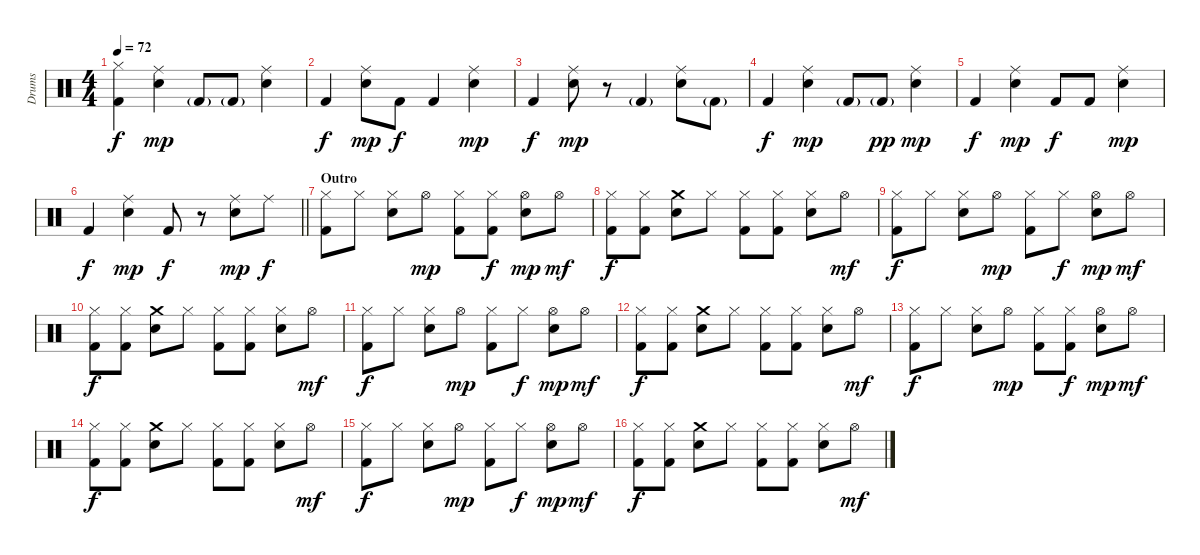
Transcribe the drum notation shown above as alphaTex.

\track ("Drums" "Drums") {instrument percussion}
\staff {score}
\articulation defaults
\ts (4 4)
\tempo 72
\clef neutral
\ks c
("Hi-Hat (closed)" "Kick (hit) 2").4{dy f} ("Ride (middle)" "Electric Snare (hit)").4{dy mp} "Kick (hit) 2"{g}.8 "Kick (hit) 2"{g}.8 ("Ride (middle)" "Electric Snare (hit)").4 |
"Kick (hit) 2".4{dy f} ("Ride (middle)" "Electric Snare (hit)").8{dy mp} "Kick (hit) 2".8{dy f} "Kick (hit) 2".4 ("Ride (middle)" "Electric Snare (hit)").4{dy mp} |
"Kick (hit) 2".4{dy f} ("Ride (middle)" "Electric Snare (hit)").8{dy mp} r.8 "Kick (hit) 2"{g}.4 ("Ride (middle)" "Electric Snare (hit)").8 "Kick (hit) 2"{g}.8 |
"Kick (hit) 2".4{dy f} ("Ride (middle)" "Electric Snare (hit)").4{dy mp} "Kick (hit) 2"{g}.8 "Kick (hit) 2"{g}.8{dy pp} ("Ride (middle)" "Electric Snare (hit)").4{dy mp} |
"Kick (hit) 2".4{dy f} ("Ride (middle)" "Electric Snare (hit)").4{dy mp} "Kick (hit) 2".8{dy f} "Kick (hit) 2".8 ("Ride (middle)" "Electric Snare (hit)").4{dy mp} |
\barLineRight lightlight "Kick (hit) 2".4{dy f}
("Ride (middle)" "Electric Snare (hit)").4{dy mp} "Kick (hit) 2".8{dy f} r.8 ("Ride (middle)" "Electric Snare (hit)").8{dy mp} "Ride (middle)".8{dy f} |
\section ("" "Outro")
("Hi-Hat (closed)" "Kick (hit) 2").8 "Hi-Hat (closed)".8 ("Hi-Hat (closed)" "Electric Snare (hit)").8 "Hi-Hat (open)".8{dy mp} ("Hi-Hat (closed)" "Kick (hit) 2").8 ("Hi-Hat (closed)" "Kick (hit) 2").8{dy f} ("Hi-Hat (open)" "Electric Snare (hit)").8{dy mp} "Hi-Hat (open)".8{dy mf} |
("Hi-Hat (closed)" "Kick (hit) 2").8{dy f} ("Hi-Hat (closed)" "Kick (hit) 2").8 ("Crash medium (hit)" "Electric Snare (hit)").8 "Hi-Hat (closed)".8 ("Hi-Hat (closed)" "Kick (hit) 2").8 ("Hi-Hat (closed)" "Kick (hit) 2").8 ("Hi-Hat (closed)" "Electric Snare (hit)").8 "Hi-Hat (open)".8{dy mf} |
("Hi-Hat (closed)" "Kick (hit) 2").8{dy f} "Hi-Hat (closed)".8 ("Hi-Hat (closed)" "Electric Snare (hit)").8 "Hi-Hat (open)".8{dy mp} ("Hi-Hat (closed)" "Kick (hit) 2").8 "Hi-Hat (closed)".8{dy f} ("Hi-Hat (open)" "Electric Snare (hit)").8{dy mp} "Hi-Hat (open)".8{dy mf} |
("Hi-Hat (closed)" "Kick (hit) 2").8{dy f} ("Hi-Hat (closed)" "Kick (hit) 2").8 ("Crash medium (hit)" "Electric Snare (hit)").8 "Hi-Hat (closed)".8 ("Hi-Hat (closed)" "Kick (hit) 2").8 ("Hi-Hat (closed)" "Kick (hit) 2").8 ("Hi-Hat (closed)" "Electric Snare (hit)").8 "Hi-Hat (open)".8{dy mf} |
("Hi-Hat (closed)" "Kick (hit) 2").8{dy f} "Hi-Hat (closed)".8 ("Hi-Hat (closed)" "Electric Snare (hit)").8 "Hi-Hat (open)".8{dy mp} ("Hi-Hat (closed)" "Kick (hit) 2").8 "Hi-Hat (closed)".8{dy f} ("Hi-Hat (open)" "Electric Snare (hit)").8{dy mp} "Hi-Hat (open)".8{dy mf} |
("Hi-Hat (closed)" "Kick (hit) 2").8{dy f} ("Hi-Hat (closed)" "Kick (hit) 2").8 ("Crash medium (hit)" "Electric Snare (hit)").8 "Hi-Hat (closed)".8 ("Hi-Hat (closed)" "Kick (hit) 2").8 ("Hi-Hat (closed)" "Kick (hit) 2").8 ("Hi-Hat (closed)" "Electric Snare (hit)").8 "Hi-Hat (open)".8{dy mf} |
("Hi-Hat (closed)" "Kick (hit) 2").8{dy f} "Hi-Hat (closed)".8 ("Hi-Hat (closed)" "Electric Snare (hit)").8 "Hi-Hat (open)".8{dy mp} ("Hi-Hat (closed)" "Kick (hit) 2").8 ("Hi-Hat (closed)" "Kick (hit) 2").8{dy f} ("Hi-Hat (open)" "Electric Snare (hit)").8{dy mp} "Hi-Hat (open)".8{dy mf} |
("Hi-Hat (closed)" "Kick (hit) 2").8{dy f} ("Hi-Hat (closed)" "Kick (hit) 2").8 ("Crash medium (hit)" "Electric Snare (hit)").8 "Hi-Hat (closed)".8 ("Hi-Hat (closed)" "Kick (hit) 2").8 ("Hi-Hat (closed)" "Kick (hit) 2").8 ("Hi-Hat (closed)" "Electric Snare (hit)").8 "Hi-Hat (open)".8{dy mf} |
("Hi-Hat (closed)" "Kick (hit) 2").8{dy f} "Hi-Hat (closed)".8 ("Hi-Hat (closed)" "Electric Snare (hit)").8 "Hi-Hat (open)".8{dy mp} ("Hi-Hat (closed)" "Kick (hit) 2").8 "Hi-Hat (closed)".8{dy f} ("Hi-Hat (open)" "Electric Snare (hit)").8{dy mp} "Hi-Hat (open)".8{dy mf} |
("Hi-Hat (closed)" "Kick (hit) 2").8{dy f} ("Hi-Hat (closed)" "Kick (hit) 2").8 ("Crash medium (hit)" "Electric Snare (hit)").8 "Hi-Hat (closed)".8 ("Hi-Hat (closed)" "Kick (hit) 2").8 ("Hi-Hat (closed)" "Kick (hit) 2").8 ("Hi-Hat (closed)" "Electric Snare (hit)").8 "Hi-Hat (open)".8{dy mf}
